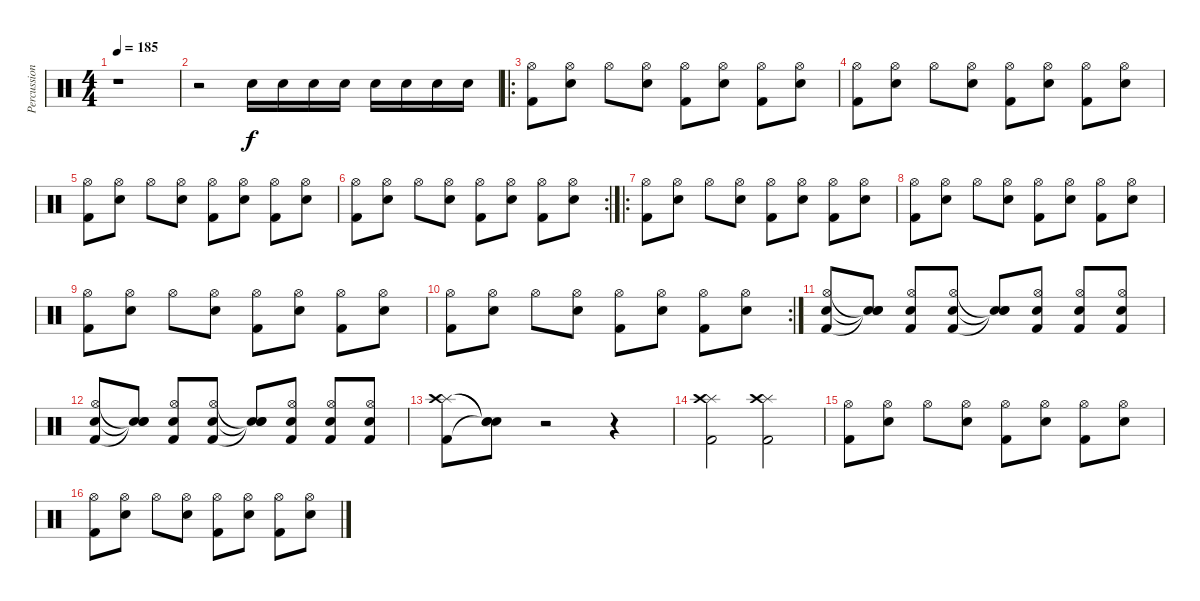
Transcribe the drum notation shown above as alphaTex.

\track ("Percussion" "Percussion") {instrument percussion}
\staff {score}
\articulation defaults
\ts (4 4)
\tempo 185
\clef neutral
\ks c
r.1{dy f} |
r.2 "Snare (hit) 2".16 "Snare (hit) 2".16 "Snare (hit) 2".16 "Snare (hit) 2".16 "Snare (hit) 2".16 "Snare (hit) 2".16 "Snare (hit) 2".16 "Snare (hit) 2".16 |
\ro
("Hi-Hat (open)" "Kick (hit) 2").8 ("Hi-Hat (open)" "Snare (hit) 2").8 "Hi-Hat (open)".8 ("Hi-Hat (open)" "Snare (hit) 2").8 ("Hi-Hat (open)" "Kick (hit) 2").8 ("Hi-Hat (open)" "Snare (hit) 2").8 ("Hi-Hat (open)" "Kick (hit) 2").8 ("Hi-Hat (open)" "Snare (hit) 2").8 |
("Hi-Hat (open)" "Kick (hit) 2").8 ("Hi-Hat (open)" "Snare (hit) 2").8 "Hi-Hat (open)".8 ("Hi-Hat (open)" "Snare (hit) 2").8 ("Hi-Hat (open)" "Kick (hit) 2").8 ("Hi-Hat (open)" "Snare (hit) 2").8 ("Hi-Hat (open)" "Kick (hit) 2").8 ("Hi-Hat (open)" "Snare (hit) 2").8 |
("Hi-Hat (open)" "Kick (hit) 2").8 ("Hi-Hat (open)" "Snare (hit) 2").8 "Hi-Hat (open)".8 ("Hi-Hat (open)" "Snare (hit) 2").8 ("Hi-Hat (open)" "Kick (hit) 2").8 ("Hi-Hat (open)" "Snare (hit) 2").8 ("Hi-Hat (open)" "Kick (hit) 2").8 ("Hi-Hat (open)" "Snare (hit) 2").8 |
\rc 2
("Hi-Hat (open)" "Kick (hit) 2").8 ("Hi-Hat (open)" "Snare (hit) 2").8 "Hi-Hat (open)".8 ("Hi-Hat (open)" "Snare (hit) 2").8 ("Hi-Hat (open)" "Kick (hit) 2").8 ("Hi-Hat (open)" "Snare (hit) 2").8 ("Hi-Hat (open)" "Kick (hit) 2").8 ("Hi-Hat (open)" "Snare (hit) 2").8 |
\ro
("Hi-Hat (open)" "Kick (hit) 2").8 ("Hi-Hat (open)" "Snare (hit) 2").8 "Hi-Hat (open)".8 ("Hi-Hat (open)" "Snare (hit) 2").8 ("Hi-Hat (open)" "Kick (hit) 2").8 ("Hi-Hat (open)" "Snare (hit) 2").8 ("Hi-Hat (open)" "Kick (hit) 2").8 ("Hi-Hat (open)" "Snare (hit) 2").8 |
("Hi-Hat (open)" "Kick (hit) 2").8 ("Hi-Hat (open)" "Snare (hit) 2").8 "Hi-Hat (open)".8 ("Hi-Hat (open)" "Snare (hit) 2").8 ("Hi-Hat (open)" "Kick (hit) 2").8 ("Hi-Hat (open)" "Snare (hit) 2").8 ("Hi-Hat (open)" "Kick (hit) 2").8 ("Hi-Hat (open)" "Snare (hit) 2").8 |
("Hi-Hat (open)" "Kick (hit) 2").8 ("Hi-Hat (open)" "Snare (hit) 2").8 "Hi-Hat (open)".8 ("Hi-Hat (open)" "Snare (hit) 2").8 ("Hi-Hat (open)" "Kick (hit) 2").8 ("Hi-Hat (open)" "Snare (hit) 2").8 ("Hi-Hat (open)" "Kick (hit) 2").8 ("Hi-Hat (open)" "Snare (hit) 2").8 |
\rc 2
("Hi-Hat (open)" "Kick (hit) 2").8 ("Hi-Hat (open)" "Snare (hit) 2").8 "Hi-Hat (open)".8 ("Hi-Hat (open)" "Snare (hit) 2").8 ("Hi-Hat (open)" "Kick (hit) 2").8 ("Hi-Hat (open)" "Snare (hit) 2").8 ("Hi-Hat (open)" "Kick (hit) 2").8 ("Hi-Hat (open)" "Snare (hit) 2").8 |
("Hi-Hat (open)" "Kick (hit) 2" "Snare (hit) 2").8 ("Snare (hit)"{t} "Snare (hit)"{t} "Snare (hit)"{t}).8 ("Hi-Hat (open)" "Kick (hit) 2" "Snare (hit) 2").8 ("Hi-Hat (open)" "Kick (hit) 2" "Snare (hit) 2").8 ("Snare (hit)"{t} "Snare (hit)"{t} "Snare (hit)"{t}).8 ("Hi-Hat (open)" "Kick (hit) 2" "Snare (hit) 2").8 ("Hi-Hat (open)" "Kick (hit) 2" "Snare (hit) 2").8 ("Hi-Hat (open)" "Kick (hit) 2" "Snare (hit) 2").8 |
("Hi-Hat (open)" "Kick (hit) 2" "Snare (hit) 2").8 ("Snare (hit)"{t} "Snare (hit)"{t} "Snare (hit)"{t}).8 ("Hi-Hat (open)" "Kick (hit) 2" "Snare (hit) 2").8 ("Hi-Hat (open)" "Kick (hit) 2" "Snare (hit) 2").8 ("Snare (hit)"{t} "Snare (hit)"{t} "Snare (hit)"{t}).8 ("Hi-Hat (open)" "Kick (hit) 2" "Snare (hit) 2").8 ("Hi-Hat (open)" "Kick (hit) 2" "Snare (hit) 2").8 ("Hi-Hat (open)" "Kick (hit) 2" "Snare (hit) 2").8 |
("Splash (hit)" "Crash high (hit)" "Kick (hit) 2").8 ("Snare (hit)"{t} "Snare (hit)"{t} "Snare (hit)"{t}).8 r.2 r.4 |
("Splash (hit)" "Crash high (hit)" "Kick (hit) 2").2 ("Splash (hit)" "Crash high (hit)" "Kick (hit) 2").2 |
("Hi-Hat (open)" "Kick (hit) 2").8 ("Hi-Hat (open)" "Snare (hit) 2").8 "Hi-Hat (open)".8 ("Hi-Hat (open)" "Snare (hit) 2").8 ("Hi-Hat (open)" "Kick (hit) 2").8 ("Hi-Hat (open)" "Snare (hit) 2").8 ("Hi-Hat (open)" "Kick (hit) 2").8 ("Hi-Hat (open)" "Snare (hit) 2").8 |
("Hi-Hat (open)" "Kick (hit) 2").8 ("Hi-Hat (open)" "Snare (hit) 2").8 "Hi-Hat (open)".8 ("Hi-Hat (open)" "Snare (hit) 2").8 ("Hi-Hat (open)" "Kick (hit) 2").8 ("Hi-Hat (open)" "Snare (hit) 2").8 ("Hi-Hat (open)" "Kick (hit) 2").8 ("Hi-Hat (open)" "Snare (hit) 2").8
